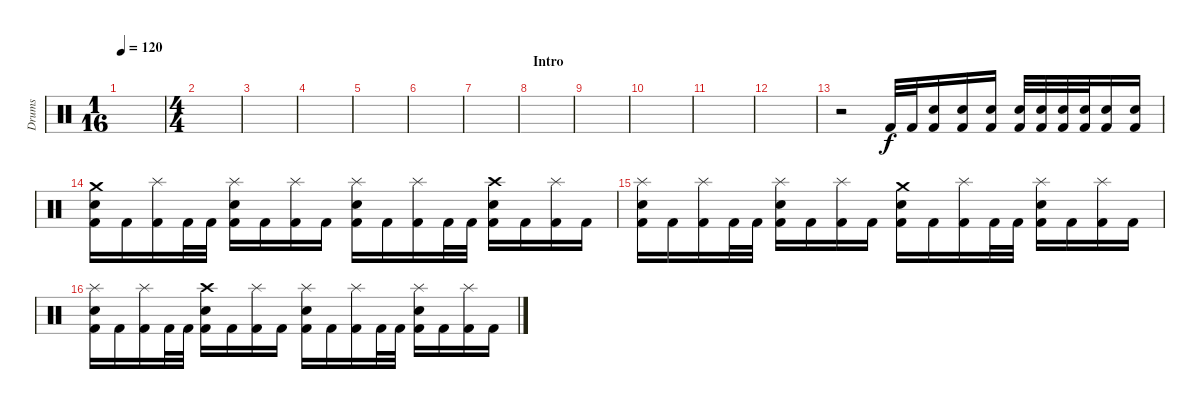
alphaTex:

\track ("Drums" "Drums") {instrument percussion}
\staff {score}
\articulation defaults
\ts (1 16)
\tempo 120
\clef neutral
\ks c
|
\ts (4 4)
|
|
|
|
|
|
\section ("" "Intro")
|
|
|
|
|
r.2 "Kick (hit) 2".32 "Kick (hit) 2".32 ("Electric Snare (hit)" "Kick (hit) 2").16 ("Electric Snare (hit)" "Kick (hit) 2").16 ("Electric Snare (hit)" "Kick (hit) 2").16 ("Electric Snare (hit)" "Kick (hit) 2").32 ("Electric Snare (hit)" "Kick (hit) 2").32 ("Electric Snare (hit)" "Kick (hit) 2").32 ("Electric Snare (hit)" "Kick (hit) 2").32 ("Electric Snare (hit)" "Kick (hit) 2").16 ("Electric Snare (hit)" "Kick (hit) 2").16 |
("Crash medium (hit)" "Electric Snare (hit)" "Kick (hit) 2").16 "Kick (hit) 2".16 ("Splash (hit)" "Kick (hit) 2").16 "Kick (hit) 2".32 "Kick (hit) 2".32 ("Splash (hit)" "Electric Snare (hit)" "Kick (hit) 2").16 "Kick (hit) 2".16 ("Splash (hit)" "Kick (hit) 2").16 "Kick (hit) 2".16 ("Splash (hit)" "Electric Snare (hit)" "Kick (hit) 2").16 "Kick (hit) 2".16 ("Splash (hit)" "Kick (hit) 2").16 "Kick (hit) 2".32 "Kick (hit) 2".32 ("Crash high (hit)" "Electric Snare (hit)" "Kick (hit) 2").16 "Kick (hit) 2".16 ("Splash (hit)" "Kick (hit) 2").16 "Kick (hit) 2".16 |
("Splash (hit)" "Electric Snare (hit)" "Kick (hit) 2").16 "Kick (hit) 2".16 ("Splash (hit)" "Kick (hit) 2").16 "Kick (hit) 2".32 "Kick (hit) 2".32 ("Splash (hit)" "Electric Snare (hit)" "Kick (hit) 2").16 "Kick (hit) 2".16 ("Splash (hit)" "Kick (hit) 2").16 "Kick (hit) 2".16 ("Crash medium (hit)" "Electric Snare (hit)" "Kick (hit) 2").16 "Kick (hit) 2".16 ("Splash (hit)" "Kick (hit) 2").16 "Kick (hit) 2".32 "Kick (hit) 2".32 ("Splash (hit)" "Electric Snare (hit)" "Kick (hit) 2").16 "Kick (hit) 2".16 ("Splash (hit)" "Kick (hit) 2").16 "Kick (hit) 2".16 |
("Splash (hit)" "Electric Snare (hit)" "Kick (hit) 2").16 "Kick (hit) 2".16 ("Splash (hit)" "Kick (hit) 2").16 "Kick (hit) 2".32 "Kick (hit) 2".32 ("Crash high (hit)" "Electric Snare (hit)" "Kick (hit) 2").16 "Kick (hit) 2".16 ("Splash (hit)" "Kick (hit) 2").16 "Kick (hit) 2".16 ("Splash (hit)" "Electric Snare (hit)" "Kick (hit) 2").16 "Kick (hit) 2".16 ("Splash (hit)" "Kick (hit) 2").16 "Kick (hit) 2".32 "Kick (hit) 2".32 ("Splash (hit)" "Electric Snare (hit)" "Kick (hit) 2").16 "Kick (hit) 2".16 ("Splash (hit)" "Kick (hit) 2").16 "Kick (hit) 2".16
